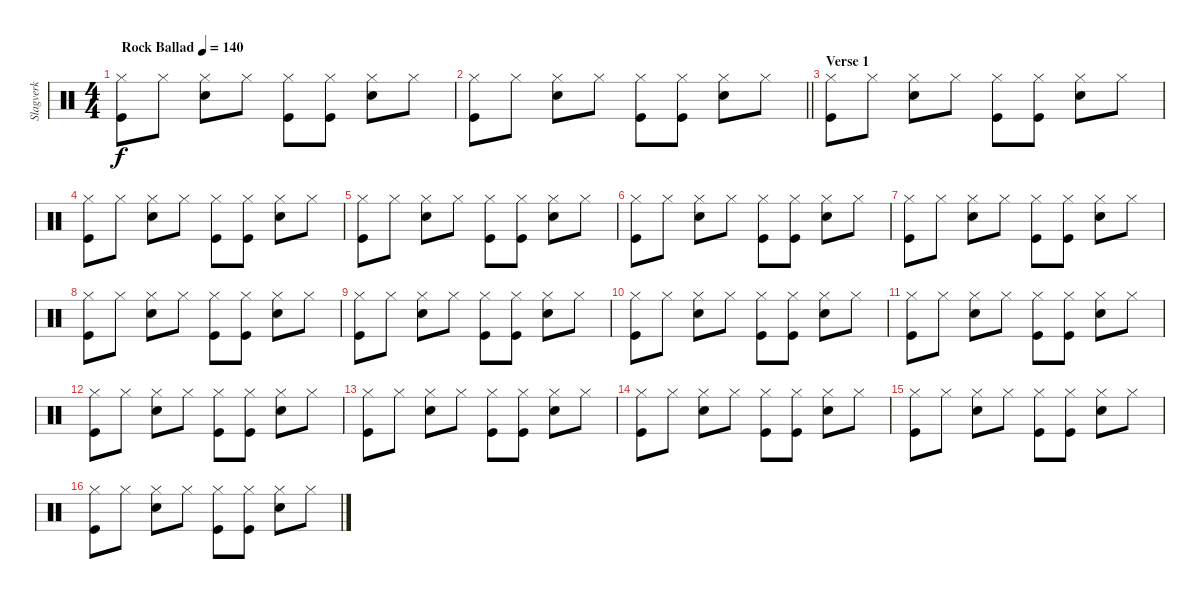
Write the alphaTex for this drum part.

\track ("Slagverk" "Slagverk") {instrument percussion}
\staff {score}
\articulation defaults
\ts (4 4)
\tempo (140 "Rock Ballad")
\clef neutral
\ks c
("Hi-Hat (closed)" "Kick (hit)").8{dy f} "Hi-Hat (closed)".8 ("Hi-Hat (closed)" "Snare (hit) 2").8 "Hi-Hat (closed)".8 ("Hi-Hat (closed)" "Kick (hit)").8 ("Hi-Hat (closed)" "Kick (hit)").8 ("Hi-Hat (closed)" "Snare (hit) 2").8 "Hi-Hat (closed)".8 |
\barLineRight lightlight
("Hi-Hat (closed)" "Kick (hit)").8 "Hi-Hat (closed)".8 ("Hi-Hat (closed)" "Snare (hit) 2").8 "Hi-Hat (closed)".8 ("Hi-Hat (closed)" "Kick (hit)").8 ("Hi-Hat (closed)" "Kick (hit)").8 ("Hi-Hat (closed)" "Snare (hit) 2").8 "Hi-Hat (closed)".8 |
\section ("" "Verse 1")
("Hi-Hat (closed)" "Kick (hit)").8 "Hi-Hat (closed)".8 ("Hi-Hat (closed)" "Snare (hit) 2").8 "Hi-Hat (closed)".8 ("Hi-Hat (closed)" "Kick (hit)").8 ("Hi-Hat (closed)" "Kick (hit)").8 ("Hi-Hat (closed)" "Snare (hit) 2").8 "Hi-Hat (closed)".8 |
("Hi-Hat (closed)" "Kick (hit)").8 "Hi-Hat (closed)".8 ("Hi-Hat (closed)" "Snare (hit) 2").8 "Hi-Hat (closed)".8 ("Hi-Hat (closed)" "Kick (hit)").8 ("Hi-Hat (closed)" "Kick (hit)").8 ("Hi-Hat (closed)" "Snare (hit) 2").8 "Hi-Hat (closed)".8 |
("Hi-Hat (closed)" "Kick (hit)").8 "Hi-Hat (closed)".8 ("Hi-Hat (closed)" "Snare (hit) 2").8 "Hi-Hat (closed)".8 ("Hi-Hat (closed)" "Kick (hit)").8 ("Hi-Hat (closed)" "Kick (hit)").8 ("Hi-Hat (closed)" "Snare (hit) 2").8 "Hi-Hat (closed)".8 |
("Hi-Hat (closed)" "Kick (hit)").8 "Hi-Hat (closed)".8 ("Hi-Hat (closed)" "Snare (hit) 2").8 "Hi-Hat (closed)".8 ("Hi-Hat (closed)" "Kick (hit)").8 ("Hi-Hat (closed)" "Kick (hit)").8 ("Hi-Hat (closed)" "Snare (hit) 2").8 "Hi-Hat (closed)".8 |
("Hi-Hat (closed)" "Kick (hit)").8 "Hi-Hat (closed)".8 ("Hi-Hat (closed)" "Snare (hit) 2").8 "Hi-Hat (closed)".8 ("Hi-Hat (closed)" "Kick (hit)").8 ("Hi-Hat (closed)" "Kick (hit)").8 ("Hi-Hat (closed)" "Snare (hit) 2").8 "Hi-Hat (closed)".8 |
("Hi-Hat (closed)" "Kick (hit)").8 "Hi-Hat (closed)".8 ("Hi-Hat (closed)" "Snare (hit) 2").8 "Hi-Hat (closed)".8 ("Hi-Hat (closed)" "Kick (hit)").8 ("Hi-Hat (closed)" "Kick (hit)").8 ("Hi-Hat (closed)" "Snare (hit) 2").8 "Hi-Hat (closed)".8 |
("Hi-Hat (closed)" "Kick (hit)").8 "Hi-Hat (closed)".8 ("Hi-Hat (closed)" "Snare (hit) 2").8 "Hi-Hat (closed)".8 ("Hi-Hat (closed)" "Kick (hit)").8 ("Hi-Hat (closed)" "Kick (hit)").8 ("Hi-Hat (closed)" "Snare (hit) 2").8 "Hi-Hat (closed)".8 |
("Hi-Hat (closed)" "Kick (hit)").8 "Hi-Hat (closed)".8 ("Hi-Hat (closed)" "Snare (hit) 2").8 "Hi-Hat (closed)".8 ("Hi-Hat (closed)" "Kick (hit)").8 ("Hi-Hat (closed)" "Kick (hit)").8 ("Hi-Hat (closed)" "Snare (hit) 2").8 "Hi-Hat (closed)".8 |
("Hi-Hat (closed)" "Kick (hit)").8 "Hi-Hat (closed)".8 ("Hi-Hat (closed)" "Snare (hit) 2").8 "Hi-Hat (closed)".8 ("Hi-Hat (closed)" "Kick (hit)").8 ("Hi-Hat (closed)" "Kick (hit)").8 ("Hi-Hat (closed)" "Snare (hit) 2").8 "Hi-Hat (closed)".8 |
("Hi-Hat (closed)" "Kick (hit)").8 "Hi-Hat (closed)".8 ("Hi-Hat (closed)" "Snare (hit) 2").8 "Hi-Hat (closed)".8 ("Hi-Hat (closed)" "Kick (hit)").8 ("Hi-Hat (closed)" "Kick (hit)").8 ("Hi-Hat (closed)" "Snare (hit) 2").8 "Hi-Hat (closed)".8 |
("Hi-Hat (closed)" "Kick (hit)").8 "Hi-Hat (closed)".8 ("Hi-Hat (closed)" "Snare (hit) 2").8 "Hi-Hat (closed)".8 ("Hi-Hat (closed)" "Kick (hit)").8 ("Hi-Hat (closed)" "Kick (hit)").8 ("Hi-Hat (closed)" "Snare (hit) 2").8 "Hi-Hat (closed)".8 |
("Hi-Hat (closed)" "Kick (hit)").8 "Hi-Hat (closed)".8 ("Hi-Hat (closed)" "Snare (hit) 2").8 "Hi-Hat (closed)".8 ("Hi-Hat (closed)" "Kick (hit)").8 ("Hi-Hat (closed)" "Kick (hit)").8 ("Hi-Hat (closed)" "Snare (hit) 2").8 "Hi-Hat (closed)".8 |
("Hi-Hat (closed)" "Kick (hit)").8 "Hi-Hat (closed)".8 ("Hi-Hat (closed)" "Snare (hit) 2").8 "Hi-Hat (closed)".8 ("Hi-Hat (closed)" "Kick (hit)").8 ("Hi-Hat (closed)" "Kick (hit)").8 ("Hi-Hat (closed)" "Snare (hit) 2").8 "Hi-Hat (closed)".8 |
("Hi-Hat (closed)" "Kick (hit)").8 "Hi-Hat (closed)".8 ("Hi-Hat (closed)" "Snare (hit) 2").8 "Hi-Hat (closed)".8 ("Hi-Hat (closed)" "Kick (hit)").8 ("Hi-Hat (closed)" "Kick (hit)").8 ("Hi-Hat (closed)" "Snare (hit) 2").8 "Hi-Hat (closed)".8
